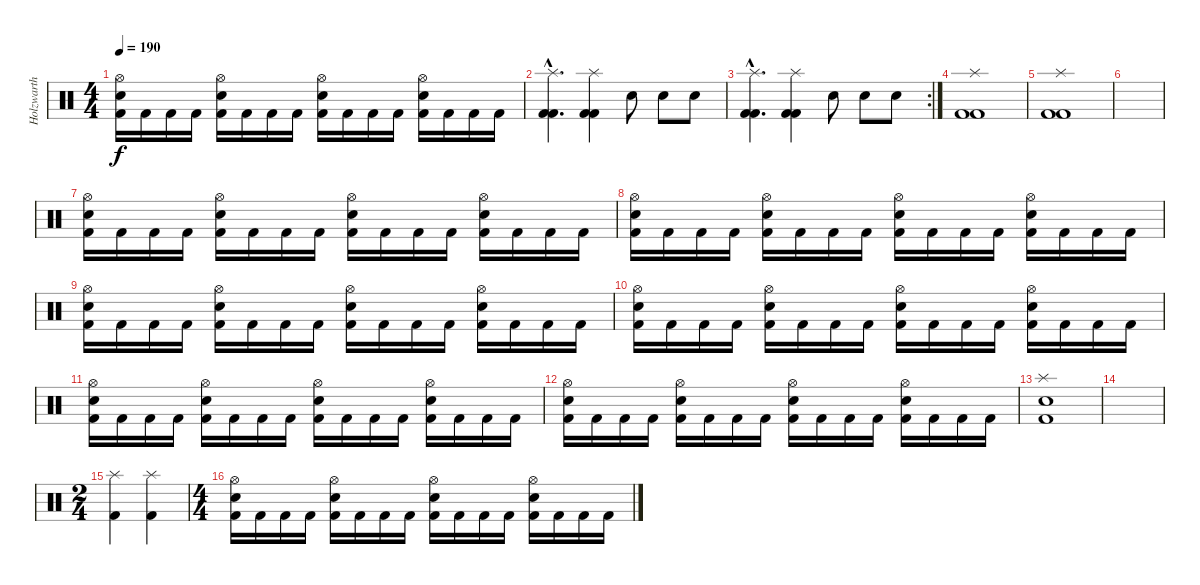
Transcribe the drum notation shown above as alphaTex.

\track ("Holzwarth" "Holzwarth") {instrument percussion}
\staff {score}
\articulation defaults
\ts (4 4)
\tempo 190
\clef neutral
\ks c
("Hi-Hat (open)" "Snare (hit) 2" "Kick (hit) 2").16{dy f} "Kick (hit) 2".16 "Kick (hit) 2".16 "Kick (hit) 2".16 ("Hi-Hat (open)" "Snare (hit) 2" "Kick (hit) 2").16 "Kick (hit) 2".16 "Kick (hit) 2".16 "Kick (hit) 2".16 ("Hi-Hat (open)" "Snare (hit) 2" "Kick (hit) 2").16 "Kick (hit) 2".16 "Kick (hit) 2".16 "Kick (hit) 2".16 ("Hi-Hat (open)" "Snare (hit) 2" "Kick (hit) 2").16 "Kick (hit) 2".16 "Kick (hit) 2".16 "Kick (hit) 2".16 |
("Splash (hit)"{hac} "Kick (hit) 2"{hac} "Kick (hit) 2"{hac}).4{d} ("Splash (hit)" "Kick (hit) 2" "Kick (hit) 2").4 "Snare (hit) 2".8 "Snare (hit) 2".8 "Snare (hit) 2".8 |
\rc 2
("Splash (hit)"{hac} "Kick (hit) 2"{hac} "Kick (hit) 2"{hac}).4{d} ("Splash (hit)" "Kick (hit) 2" "Kick (hit) 2").4 "Snare (hit) 2".8 "Snare (hit) 2".8 "Snare (hit) 2".8 |
("Splash (hit)" "Kick (hit) 2" "Kick (hit) 2").1 |
("Splash (hit)" "Kick (hit) 2" "Kick (hit) 2").1 |
|
("Hi-Hat (open)" "Snare (hit) 2" "Kick (hit) 2").16 "Kick (hit) 2".16 "Kick (hit) 2".16 "Kick (hit) 2".16 ("Hi-Hat (open)" "Snare (hit) 2" "Kick (hit) 2").16 "Kick (hit) 2".16 "Kick (hit) 2".16 "Kick (hit) 2".16 ("Hi-Hat (open)" "Snare (hit) 2" "Kick (hit) 2").16 "Kick (hit) 2".16 "Kick (hit) 2".16 "Kick (hit) 2".16 ("Hi-Hat (open)" "Snare (hit) 2" "Kick (hit) 2").16 "Kick (hit) 2".16 "Kick (hit) 2".16 "Kick (hit) 2".16 |
("Hi-Hat (open)" "Snare (hit) 2" "Kick (hit) 2").16 "Kick (hit) 2".16 "Kick (hit) 2".16 "Kick (hit) 2".16 ("Hi-Hat (open)" "Snare (hit) 2" "Kick (hit) 2").16 "Kick (hit) 2".16 "Kick (hit) 2".16 "Kick (hit) 2".16 ("Hi-Hat (open)" "Snare (hit) 2" "Kick (hit) 2").16 "Kick (hit) 2".16 "Kick (hit) 2".16 "Kick (hit) 2".16 ("Hi-Hat (open)" "Snare (hit) 2" "Kick (hit) 2").16 "Kick (hit) 2".16 "Kick (hit) 2".16 "Kick (hit) 2".16 |
("Hi-Hat (open)" "Snare (hit) 2" "Kick (hit) 2").16 "Kick (hit) 2".16 "Kick (hit) 2".16 "Kick (hit) 2".16 ("Hi-Hat (open)" "Snare (hit) 2" "Kick (hit) 2").16 "Kick (hit) 2".16 "Kick (hit) 2".16 "Kick (hit) 2".16 ("Hi-Hat (open)" "Snare (hit) 2" "Kick (hit) 2").16 "Kick (hit) 2".16 "Kick (hit) 2".16 "Kick (hit) 2".16 ("Hi-Hat (open)" "Snare (hit) 2" "Kick (hit) 2").16 "Kick (hit) 2".16 "Kick (hit) 2".16 "Kick (hit) 2".16 |
("Hi-Hat (open)" "Snare (hit) 2" "Kick (hit) 2").16 "Kick (hit) 2".16 "Kick (hit) 2".16 "Kick (hit) 2".16 ("Hi-Hat (open)" "Snare (hit) 2" "Kick (hit) 2").16 "Kick (hit) 2".16 "Kick (hit) 2".16 "Kick (hit) 2".16 ("Hi-Hat (open)" "Snare (hit) 2" "Kick (hit) 2").16 "Kick (hit) 2".16 "Kick (hit) 2".16 "Kick (hit) 2".16 ("Hi-Hat (open)" "Snare (hit) 2" "Kick (hit) 2").16 "Kick (hit) 2".16 "Kick (hit) 2".16 "Kick (hit) 2".16 |
("Hi-Hat (open)" "Snare (hit) 2" "Kick (hit) 2").16 "Kick (hit) 2".16 "Kick (hit) 2".16 "Kick (hit) 2".16 ("Hi-Hat (open)" "Snare (hit) 2" "Kick (hit) 2").16 "Kick (hit) 2".16 "Kick (hit) 2".16 "Kick (hit) 2".16 ("Hi-Hat (open)" "Snare (hit) 2" "Kick (hit) 2").16 "Kick (hit) 2".16 "Kick (hit) 2".16 "Kick (hit) 2".16 ("Hi-Hat (open)" "Snare (hit) 2" "Kick (hit) 2").16 "Kick (hit) 2".16 "Kick (hit) 2".16 "Kick (hit) 2".16 |
("Hi-Hat (open)" "Snare (hit) 2" "Kick (hit) 2").16 "Kick (hit) 2".16 "Kick (hit) 2".16 "Kick (hit) 2".16 ("Hi-Hat (open)" "Snare (hit) 2" "Kick (hit) 2").16 "Kick (hit) 2".16 "Kick (hit) 2".16 "Kick (hit) 2".16 ("Hi-Hat (open)" "Snare (hit) 2" "Kick (hit) 2").16 "Kick (hit) 2".16 "Kick (hit) 2".16 "Kick (hit) 2".16 ("Hi-Hat (open)" "Snare (hit) 2" "Kick (hit) 2").16 "Kick (hit) 2".16 "Kick (hit) 2".16 "Kick (hit) 2".16 |
("Splash (hit)" "Snare (hit) 2" "Kick (hit) 2").1 |
|
\ts (2 4)
("Splash (hit)" "Kick (hit) 2").4 ("Splash (hit)" "Kick (hit) 2").4 |
\ts (4 4)
("Hi-Hat (open)" "Snare (hit) 2" "Kick (hit) 2").16 "Kick (hit) 2".16 "Kick (hit) 2".16 "Kick (hit) 2".16 ("Hi-Hat (open)" "Snare (hit) 2" "Kick (hit) 2").16 "Kick (hit) 2".16 "Kick (hit) 2".16 "Kick (hit) 2".16 ("Hi-Hat (open)" "Snare (hit) 2" "Kick (hit) 2").16 "Kick (hit) 2".16 "Kick (hit) 2".16 "Kick (hit) 2".16 ("Hi-Hat (open)" "Snare (hit) 2" "Kick (hit) 2").16 "Kick (hit) 2".16 "Kick (hit) 2".16 "Kick (hit) 2".16
